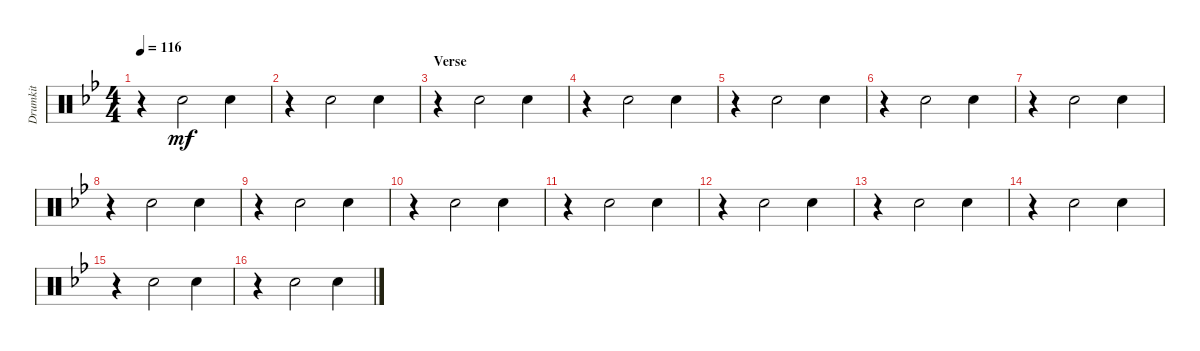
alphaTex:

\track ("Drumkit" "Drumkit") {instrument percussion}
\staff {score}
\articulation defaults
\ts (4 4)
\tempo 116
\clef neutral
\ks bb
r.4{dy mf} "Snare (hit) 2".2 "Snare (hit) 2".4 |
r.4 "Snare (hit) 2".2 "Snare (hit) 2".4 |
\section ("" "Verse")
r.4 "Snare (hit) 2".2 "Snare (hit) 2".4 |
r.4 "Snare (hit) 2".2 "Snare (hit) 2".4 |
r.4 "Snare (hit) 2".2 "Snare (hit) 2".4 |
r.4 "Snare (hit) 2".2 "Snare (hit) 2".4 |
r.4 "Snare (hit) 2".2 "Snare (hit) 2".4 |
r.4 "Snare (hit) 2".2 "Snare (hit) 2".4 |
r.4 "Snare (hit) 2".2 "Snare (hit) 2".4 |
r.4 "Snare (hit) 2".2 "Snare (hit) 2".4 |
r.4 "Snare (hit) 2".2 "Snare (hit) 2".4 |
r.4 "Snare (hit) 2".2 "Snare (hit) 2".4 |
r.4 "Snare (hit) 2".2 "Snare (hit) 2".4 |
r.4 "Snare (hit) 2".2 "Snare (hit) 2".4 |
r.4 "Snare (hit) 2".2 "Snare (hit) 2".4 |
r.4 "Snare (hit) 2".2 "Snare (hit) 2".4
